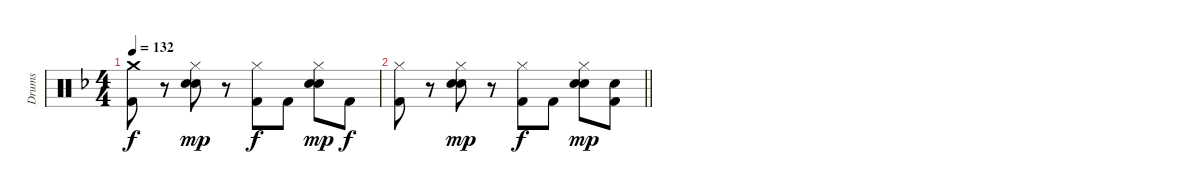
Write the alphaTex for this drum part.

\track ("Drums" "Drums") {instrument percussion}
\staff {score}
\articulation defaults
\ts (4 4)
\tempo 132
\clef neutral
\ks f
("Crash medium (hit)" "Kick (hit) 2").8{dy f} r.8 ("Hi-Hat (closed)" "Hand Clap (hit)" "Snare (hit) 2").8{dy mp} r.8 ("Hi-Hat (closed)" "Kick (hit) 2").8{dy f} "Kick (hit) 2".8 ("Hi-Hat (closed)" "Hand Clap (hit)" "Snare (hit) 2").8{dy mp} "Kick (hit) 2".8{dy f} |
\barLineRight lightlight
("Hi-Hat (closed)" "Kick (hit) 2").8 r.8 ("Hi-Hat (closed)" "Hand Clap (hit)" "Snare (hit) 2").8{dy mp} r.8 ("Hi-Hat (closed)" "Kick (hit) 2").8{dy f} "Kick (hit) 2".8 ("Hi-Hat (closed)" "Hand Clap (hit)" "Snare (hit) 2").8{dy mp} ("Hand Clap (hit)" "Kick (hit) 2").8
